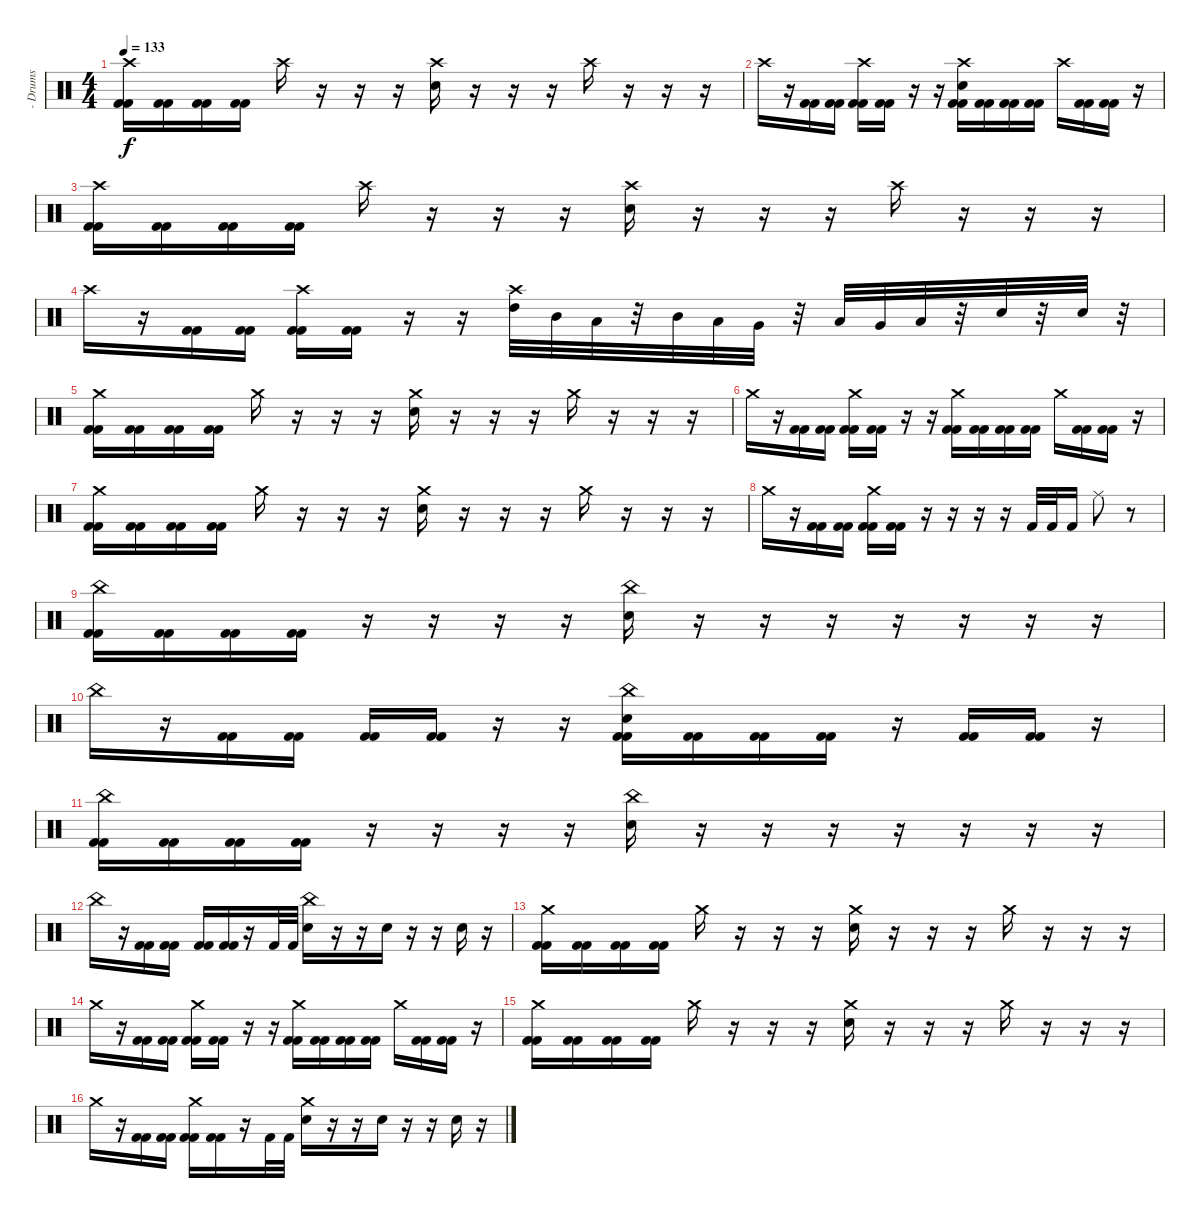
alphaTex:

\track (" - Drums" " - Drums") {instrument percussion}
\staff {score}
\articulation defaults
\ts (4 4)
\tempo 133
\clef neutral
\ks c
("Crash high (hit)" "Kick (hit) 2" "Kick (hit) 2").16{dy f} ("Kick (hit) 2" "Kick (hit) 2").16 ("Kick (hit) 2" "Kick (hit) 2").16 ("Kick (hit) 2" "Kick (hit) 2").16 "Crash high (hit)".16 r.16 r.16 r.16 ("Crash high (hit)" "Electric Snare (hit)").16 r.16 r.16 r.16 "Crash high (hit)".16 r.16 r.16 r.16 |
"Crash high (hit)".16 r.16 ("Kick (hit) 2" "Kick (hit) 2").16 ("Kick (hit) 2" "Kick (hit) 2").16 ("Crash high (hit)" "Kick (hit) 2" "Kick (hit) 2").16 ("Kick (hit) 2" "Kick (hit) 2").16 r.16 r.16 ("Crash high (hit)" "Electric Snare (hit)" "Kick (hit) 2" "Kick (hit) 2").16 ("Kick (hit) 2" "Kick (hit) 2").16 ("Kick (hit) 2" "Kick (hit) 2").16 ("Kick (hit) 2" "Kick (hit) 2").16 "Crash high (hit)".16 ("Kick (hit) 2" "Kick (hit) 2").16 ("Kick (hit) 2" "Kick (hit) 2").16 r.16 |
("Crash high (hit)" "Kick (hit) 2" "Kick (hit) 2").16 ("Kick (hit) 2" "Kick (hit) 2").16 ("Kick (hit) 2" "Kick (hit) 2").16 ("Kick (hit) 2" "Kick (hit) 2").16 "Crash high (hit)".16 r.16 r.16 r.16 ("Crash high (hit)" "Electric Snare (hit)").16 r.16 r.16 r.16 "Crash high (hit)".16 r.16 r.16 r.16 |
"Crash high (hit)".16 r.16 ("Kick (hit) 2" "Kick (hit) 2").16 ("Kick (hit) 2" "Kick (hit) 2").16 ("Crash high (hit)" "Kick (hit) 2" "Kick (hit) 2").16 ("Kick (hit) 2" "Kick (hit) 2").16 r.16 r.16 ("Crash high (hit)" "High Tom (hit)").32 "Mid Tom (hit)".32 "Low Tom (hit)".32 r.32 "Mid Tom (hit)".32 "Low Tom (hit)".32 "Very Low Tom (hit)".32 r.32 "Low Tom (hit)".32 "Very Low Tom (hit)".32 "Low Floor Tom (hit)".32 r.32 "Electric Snare (hit)".32 r.32 "Electric Snare (hit)".32 r.32 |
("Crash medium (hit)" "Kick (hit) 2" "Kick (hit) 2").16 ("Kick (hit) 2" "Kick (hit) 2").16 ("Kick (hit) 2" "Kick (hit) 2").16 ("Kick (hit) 2" "Kick (hit) 2").16 "Crash medium (hit)".16 r.16 r.16 r.16 ("Crash medium (hit)" "Electric Snare (hit)").16 r.16 r.16 r.16 "Crash medium (hit)".16 r.16 r.16 r.16 |
"Crash medium (hit)".16 r.16 ("Kick (hit) 2" "Kick (hit) 2").16 ("Kick (hit) 2" "Kick (hit) 2").16 ("Crash medium (hit)" "Kick (hit) 2" "Kick (hit) 2").16 ("Kick (hit) 2" "Kick (hit) 2").16 r.16 r.16 ("Crash medium (hit)" "Kick (hit) 2" "Kick (hit) 2").16 ("Kick (hit) 2" "Kick (hit) 2").16 ("Kick (hit) 2" "Kick (hit) 2").16 ("Kick (hit) 2" "Kick (hit) 2").16 "Crash medium (hit)".16 ("Kick (hit) 2" "Kick (hit) 2").16 ("Kick (hit) 2" "Kick (hit) 2").16 r.16 |
("Crash medium (hit)" "Kick (hit) 2" "Kick (hit) 2").16 ("Kick (hit) 2" "Kick (hit) 2").16 ("Kick (hit) 2" "Kick (hit) 2").16 ("Kick (hit) 2" "Kick (hit) 2").16 "Crash medium (hit)".16 r.16 r.16 r.16 ("Crash medium (hit)" "Electric Snare (hit)").16 r.16 r.16 r.16 "Crash medium (hit)".16 r.16 r.16 r.16 |
"Crash medium (hit)".16 r.16 ("Kick (hit) 2" "Kick (hit) 2").16 ("Kick (hit) 2" "Kick (hit) 2").16 ("Crash medium (hit)" "Kick (hit) 2" "Kick (hit) 2").16 ("Kick (hit) 2" "Kick (hit) 2").16 r.16 r.16 r.16 r.16 "Kick (hit) 2".32 "Kick (hit) 2".32 "Kick (hit) 2".16 "Ride (middle)".8 r.8 |
("China (hit)" "Kick (hit) 2" "Kick (hit) 2").16 ("Kick (hit) 2" "Kick (hit) 2").16 ("Kick (hit) 2" "Kick (hit) 2").16 ("Kick (hit) 2" "Kick (hit) 2").16 r.16 r.16 r.16 r.16 ("China (hit)" "Electric Snare (hit)").16 r.16 r.16 r.16 r.16 r.16 r.16 r.16 |
"China (hit)".16 r.16 ("Kick (hit) 2" "Kick (hit) 2").16 ("Kick (hit) 2" "Kick (hit) 2").16 ("Kick (hit) 2" "Kick (hit) 2").16 ("Kick (hit) 2" "Kick (hit) 2").16 r.16 r.16 ("China (hit)" "Electric Snare (hit)" "Kick (hit) 2" "Kick (hit) 2").16 ("Kick (hit) 2" "Kick (hit) 2").16 ("Kick (hit) 2" "Kick (hit) 2").16 ("Kick (hit) 2" "Kick (hit) 2").16 r.16 ("Kick (hit) 2" "Kick (hit) 2").16 ("Kick (hit) 2" "Kick (hit) 2").16 r.16 |
("China (hit)" "Kick (hit) 2" "Kick (hit) 2").16 ("Kick (hit) 2" "Kick (hit) 2").16 ("Kick (hit) 2" "Kick (hit) 2").16 ("Kick (hit) 2" "Kick (hit) 2").16 r.16 r.16 r.16 r.16 ("China (hit)" "Electric Snare (hit)").16 r.16 r.16 r.16 r.16 r.16 r.16 r.16 |
"China (hit)".16 r.16 ("Kick (hit) 2" "Kick (hit) 2").16 ("Kick (hit) 2" "Kick (hit) 2").16 ("Kick (hit) 2" "Kick (hit) 2").16 ("Kick (hit) 2" "Kick (hit) 2").16 r.16 "Kick (hit) 2".32 "Kick (hit) 2".32 ("China (hit)" "Electric Snare (hit)").16 r.16 r.16 "Electric Snare (hit)".16 r.16 r.16 "Electric Snare (hit)".16 r.16 |
("Crash medium (hit)" "Kick (hit) 2" "Kick (hit) 2").16 ("Kick (hit) 2" "Kick (hit) 2").16 ("Kick (hit) 2" "Kick (hit) 2").16 ("Kick (hit) 2" "Kick (hit) 2").16 "Crash medium (hit)".16 r.16 r.16 r.16 ("Crash medium (hit)" "Electric Snare (hit)").16 r.16 r.16 r.16 "Crash medium (hit)".16 r.16 r.16 r.16 |
"Crash medium (hit)".16 r.16 ("Kick (hit) 2" "Kick (hit) 2").16 ("Kick (hit) 2" "Kick (hit) 2").16 ("Crash medium (hit)" "Kick (hit) 2" "Kick (hit) 2").16 ("Kick (hit) 2" "Kick (hit) 2").16 r.16 r.16 ("Crash medium (hit)" "Kick (hit) 2" "Kick (hit) 2").16 ("Kick (hit) 2" "Kick (hit) 2").16 ("Kick (hit) 2" "Kick (hit) 2").16 ("Kick (hit) 2" "Kick (hit) 2").16 "Crash medium (hit)".16 ("Kick (hit) 2" "Kick (hit) 2").16 ("Kick (hit) 2" "Kick (hit) 2").16 r.16 |
("Crash medium (hit)" "Kick (hit) 2" "Kick (hit) 2").16 ("Kick (hit) 2" "Kick (hit) 2").16 ("Kick (hit) 2" "Kick (hit) 2").16 ("Kick (hit) 2" "Kick (hit) 2").16 "Crash medium (hit)".16 r.16 r.16 r.16 ("Crash medium (hit)" "Electric Snare (hit)").16 r.16 r.16 r.16 "Crash medium (hit)".16 r.16 r.16 r.16 |
"Crash medium (hit)".16 r.16 ("Kick (hit) 2" "Kick (hit) 2").16 ("Kick (hit) 2" "Kick (hit) 2").16 ("Crash medium (hit)" "Kick (hit) 2" "Kick (hit) 2").16 ("Kick (hit) 2" "Kick (hit) 2").16 r.16 "Kick (hit) 2".32 "Kick (hit) 2".32 ("Crash medium (hit)" "Electric Snare (hit)").16 r.16 r.16 "Electric Snare (hit)".16 r.16 r.16 "Electric Snare (hit)".16 r.16
